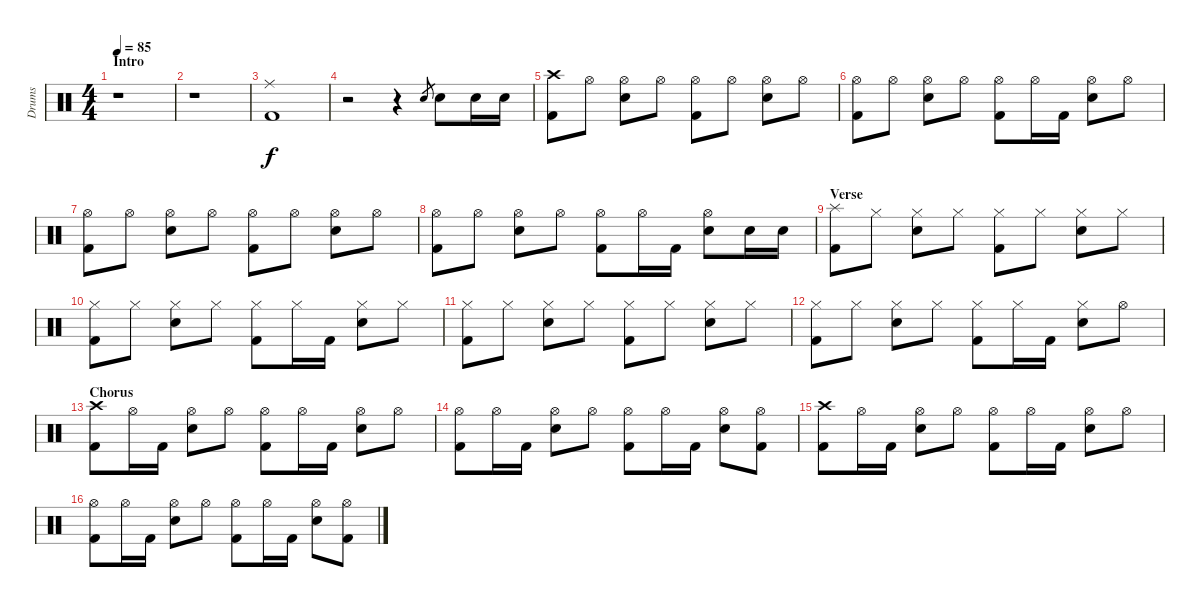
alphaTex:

\track ("Drums" "Drums") {instrument percussion}
\staff {score}
\articulation defaults
\ts (4 4)
\section ("" "Intro")
\tempo 85
\clef neutral
\ks c
r.1{dy f} |
r.1 |
("Ride (middle)" "Kick (hit) 2").1 |
r.2 r.4 "Electric Snare (hit)".8{gr} "Electric Snare (hit)".8 "Electric Snare (hit)".16 "Electric Snare (hit)".16 |
("Crash high (hit)" "Kick (hit) 2").8 "Hi-Hat (open)".8 ("Hi-Hat (open)" "Electric Snare (hit)").8 "Hi-Hat (open)".8 ("Hi-Hat (open)" "Kick (hit) 2").8 "Hi-Hat (open)".8 ("Hi-Hat (open)" "Electric Snare (hit)").8 "Hi-Hat (open)".8 |
("Hi-Hat (open)" "Kick (hit) 2").8 "Hi-Hat (open)".8 ("Hi-Hat (open)" "Electric Snare (hit)").8 "Hi-Hat (open)".8 ("Hi-Hat (open)" "Kick (hit) 2").8 "Hi-Hat (open)".16 "Kick (hit) 2".16 ("Hi-Hat (open)" "Electric Snare (hit)").8 "Hi-Hat (open)".8 |
("Hi-Hat (open)" "Kick (hit) 2").8 "Hi-Hat (open)".8 ("Hi-Hat (open)" "Electric Snare (hit)").8 "Hi-Hat (open)".8 ("Hi-Hat (open)" "Kick (hit) 2").8 "Hi-Hat (open)".8 ("Hi-Hat (open)" "Electric Snare (hit)").8 "Hi-Hat (open)".8 |
("Hi-Hat (open)" "Kick (hit) 2").8 "Hi-Hat (open)".8 ("Hi-Hat (open)" "Electric Snare (hit)").8 "Hi-Hat (open)".8 ("Hi-Hat (open)" "Kick (hit) 2").8 "Hi-Hat (open)".16 "Kick (hit) 2".16 ("Hi-Hat (open)" "Electric Snare (hit)").8 "Electric Snare (hit)".16 "Electric Snare (hit)".16 |
\section ("" "Verse")
("Splash (hit)" "Kick (hit) 2").8 "Hi-Hat (closed)".8 ("Hi-Hat (closed)" "Electric Snare (hit)").8 "Hi-Hat (closed)".8 ("Hi-Hat (closed)" "Kick (hit) 2").8 "Hi-Hat (closed)".8 ("Hi-Hat (closed)" "Electric Snare (hit)").8 "Hi-Hat (closed)".8 |
("Hi-Hat (closed)" "Kick (hit) 2").8 "Hi-Hat (closed)".8 ("Hi-Hat (closed)" "Electric Snare (hit)").8 "Hi-Hat (closed)".8 ("Hi-Hat (closed)" "Kick (hit) 2").8 "Hi-Hat (closed)".16 "Kick (hit) 2".16 ("Hi-Hat (closed)" "Electric Snare (hit)").8 "Hi-Hat (closed)".8 |
("Hi-Hat (closed)" "Kick (hit) 2").8 "Hi-Hat (closed)".8 ("Hi-Hat (closed)" "Electric Snare (hit)").8 "Hi-Hat (closed)".8 ("Hi-Hat (closed)" "Kick (hit) 2").8 "Hi-Hat (closed)".8 ("Hi-Hat (closed)" "Electric Snare (hit)").8 "Hi-Hat (closed)".8 |
("Hi-Hat (closed)" "Kick (hit) 2").8 "Hi-Hat (closed)".8 ("Hi-Hat (closed)" "Electric Snare (hit)").8 "Hi-Hat (closed)".8 ("Hi-Hat (closed)" "Kick (hit) 2").8 "Hi-Hat (closed)".16 "Kick (hit) 2".16 ("Hi-Hat (closed)" "Electric Snare (hit)").8 "Hi-Hat (open)".8 |
\section ("" "Chorus")
("Crash high (hit)" "Kick (hit) 2").8 "Hi-Hat (open)".16 "Kick (hit) 2".16 ("Hi-Hat (open)" "Electric Snare (hit)").8 "Hi-Hat (open)".8 ("Hi-Hat (open)" "Kick (hit) 2").8 "Hi-Hat (open)".16 "Kick (hit) 2".16 ("Hi-Hat (open)" "Electric Snare (hit)").8 "Hi-Hat (open)".8 |
("Hi-Hat (open)" "Kick (hit) 2").8 "Hi-Hat (open)".16 "Kick (hit) 2".16 ("Hi-Hat (open)" "Electric Snare (hit)").8 "Hi-Hat (open)".8 ("Hi-Hat (open)" "Kick (hit) 2").8 "Hi-Hat (open)".16 "Kick (hit) 2".16 ("Hi-Hat (open)" "Electric Snare (hit)").8 ("Hi-Hat (open)" "Kick (hit) 2").8 |
("Crash high (hit)" "Kick (hit) 2").8 "Hi-Hat (open)".16 "Kick (hit) 2".16 ("Hi-Hat (open)" "Electric Snare (hit)").8 "Hi-Hat (open)".8 ("Hi-Hat (open)" "Kick (hit) 2").8 "Hi-Hat (open)".16 "Kick (hit) 2".16 ("Hi-Hat (open)" "Electric Snare (hit)").8 "Hi-Hat (open)".8 |
("Hi-Hat (open)" "Kick (hit) 2").8 "Hi-Hat (open)".16 "Kick (hit) 2".16 ("Hi-Hat (open)" "Electric Snare (hit)").8 "Hi-Hat (open)".8 ("Hi-Hat (open)" "Kick (hit) 2").8 "Hi-Hat (open)".16 "Kick (hit) 2".16 ("Hi-Hat (open)" "Electric Snare (hit)").8 ("Hi-Hat (open)" "Kick (hit) 2").8
